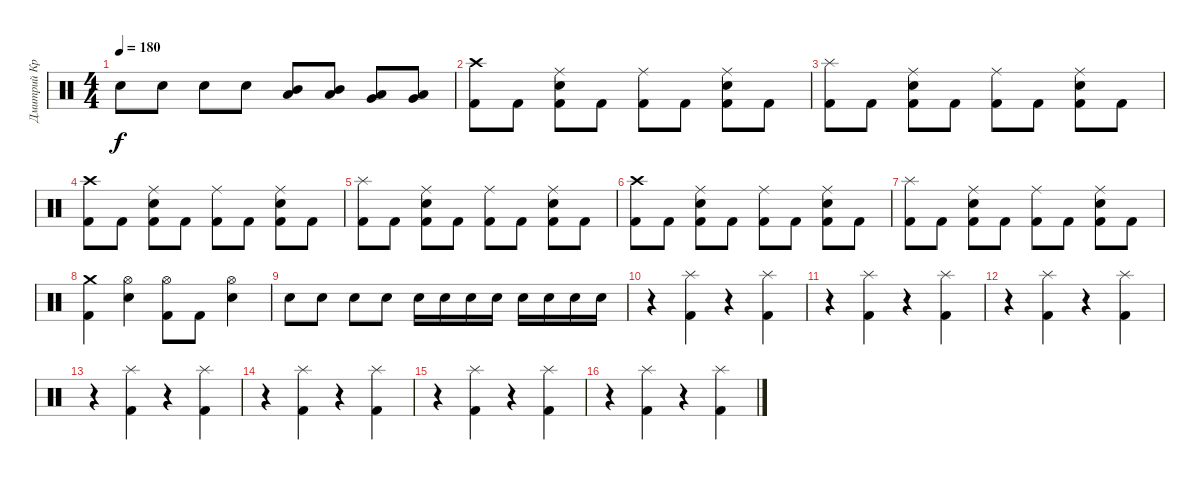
\track ("Дмитрий Кривенков" "Дмитрий Кр") {instrument percussion}
\staff {score}
\articulation defaults
\ts (4 4)
\tempo 180
\clef neutral
\ks c "Electric Snare (hit)".8{dy f} "Electric Snare (hit)".8 "Electric Snare (hit)".8 "Electric Snare (hit)".8
("Low Tom (hit)" "Mid Tom (hit)").8 ("Mid Tom (hit)" "Low Tom (hit)").8 ("Very Low Tom (hit)" "Low Tom (hit)").8 ("Low Tom (hit)" "Very Low Tom (hit)").8 |
("Kick (hit) 2" "Crash high (hit)").8 "Kick (hit) 2".8 ("Kick (hit) 2" "Electric Snare (hit)" "Ride (middle)").8 "Kick (hit) 2".8 ("Kick (hit) 2" "Ride (middle)").8 "Kick (hit) 2".8 ("Ride (middle)" "Electric Snare (hit)" "Kick (hit) 2").8 "Kick (hit) 2".8 |
("Kick (hit) 2" "Splash (hit)").8 "Kick (hit) 2".8 ("Kick (hit) 2" "Electric Snare (hit)" "Ride (middle)").8 "Kick (hit) 2".8 ("Ride (middle)" "Kick (hit) 2").8 "Kick (hit) 2".8 ("Ride (middle)" "Electric Snare (hit)" "Kick (hit) 2").8 "Kick (hit) 2".8 |
("Kick (hit) 2" "Crash high (hit)").8 "Kick (hit) 2".8 ("Kick (hit) 2" "Electric Snare (hit)" "Ride (middle)").8 "Kick (hit) 2".8 ("Kick (hit) 2" "Ride (middle)").8 "Kick (hit) 2".8 ("Ride (middle)" "Electric Snare (hit)" "Kick (hit) 2").8 "Kick (hit) 2".8 |
("Kick (hit) 2" "Splash (hit)").8 "Kick (hit) 2".8 ("Kick (hit) 2" "Electric Snare (hit)" "Ride (middle)").8 "Kick (hit) 2".8 ("Ride (middle)" "Kick (hit) 2").8 "Kick (hit) 2".8 ("Ride (middle)" "Electric Snare (hit)" "Kick (hit) 2").8 "Kick (hit) 2".8 |
("Kick (hit) 2" "Crash high (hit)").8 "Kick (hit) 2".8 ("Kick (hit) 2" "Electric Snare (hit)" "Ride (middle)").8 "Kick (hit) 2".8 ("Kick (hit) 2" "Ride (middle)").8 "Kick (hit) 2".8 ("Ride (middle)" "Electric Snare (hit)" "Kick (hit) 2").8 "Kick (hit) 2".8 |
("Kick (hit) 2" "Splash (hit)").8 "Kick (hit) 2".8 ("Kick (hit) 2" "Electric Snare (hit)" "Ride (middle)").8 "Kick (hit) 2".8 ("Ride (middle)" "Kick (hit) 2").8 "Kick (hit) 2".8 ("Ride (middle)" "Electric Snare (hit)" "Kick (hit) 2").8 "Kick (hit) 2".8 |
("Crash medium (hit)" "Kick (hit) 2").4 ("Electric Snare (hit)" "Hi-Hat (open)").4 ("Kick (hit) 2" "Hi-Hat (open)").8 "Kick (hit) 2".8 ("Electric Snare (hit)" "Hi-Hat (open)").4 |
"Electric Snare (hit)".8 "Electric Snare (hit)".8 "Electric Snare (hit)".8 "Electric Snare (hit)".8 "Snare (hit) 2".16 "Snare (hit) 2".16 "Snare (hit) 2".16 "Snare (hit) 2".16 "Snare (hit) 2".16 "Snare (hit) 2".16 "Snare (hit) 2".16 "Electric Snare (hit)".16 |
r.4 ("Splash (hit)" "Kick (hit) 2").4 r.4 ("Splash (hit)" "Kick (hit) 2").4 |
r.4 ("Splash (hit)" "Kick (hit) 2").4 r.4 ("Splash (hit)" "Kick (hit) 2").4 |
r.4 ("Splash (hit)" "Kick (hit) 2").4 r.4 ("Splash (hit)" "Kick (hit) 2").4 |
r.4 ("Splash (hit)" "Kick (hit) 2").4 r.4 ("Splash (hit)" "Kick (hit) 2").4 |
r.4 ("Splash (hit)" "Kick (hit) 2").4 r.4 ("Splash (hit)" "Kick (hit) 2").4 |
r.4 ("Splash (hit)" "Kick (hit) 2").4 r.4 ("Splash (hit)" "Kick (hit) 2").4 |
r.4 ("Splash (hit)" "Kick (hit) 2").4 r.4 ("Splash (hit)" "Kick (hit) 2").4
